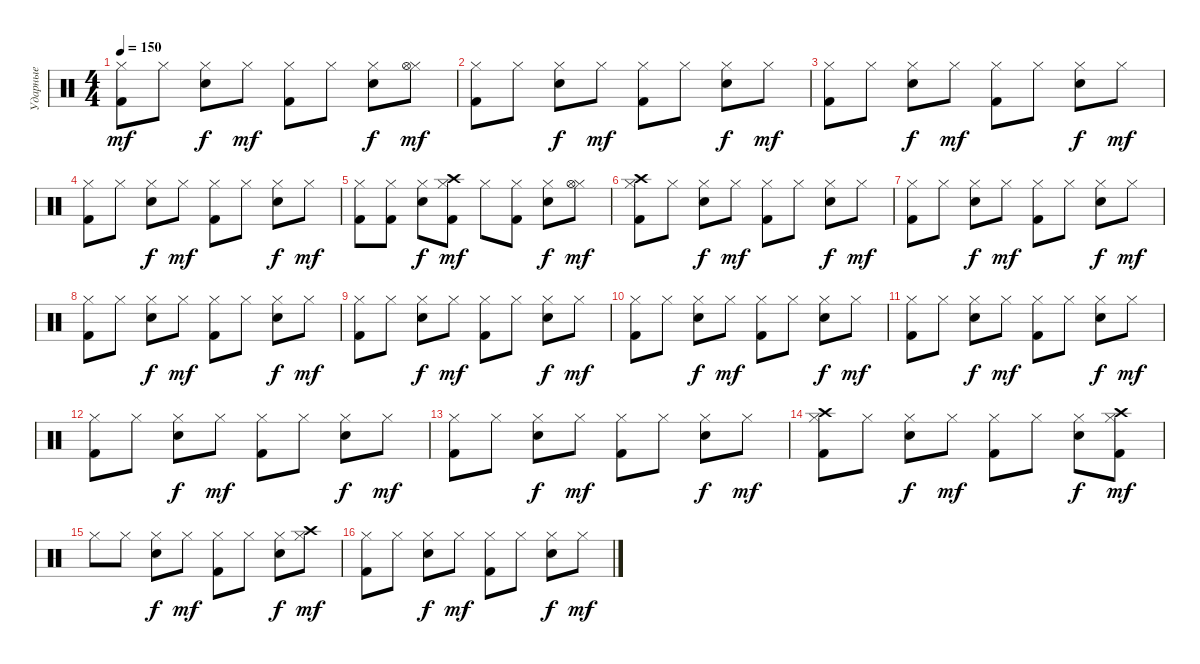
\track ("Ударные" "Ударные") {instrument percussion}
\staff {score}
\articulation defaults
\ts (4 4)
\tempo 150
\clef neutral
\ks c
("Kick (hit) 2" "Hi-Hat (closed)").8{dy mf} "Hi-Hat (closed)".8 ("Snare (hit) 2" "Hi-Hat (closed)").8{dy f} "Hi-Hat (closed)".8{dy mf} ("Kick (hit) 2" "Hi-Hat (closed)").8 "Hi-Hat (closed)".8 ("Snare (hit) 2" "Hi-Hat (closed)").8{dy f} ("Hi-Hat (closed)" "Hi-Hat (open)").8{dy mf} |
("Kick (hit) 2" "Hi-Hat (closed)").8 "Hi-Hat (closed)".8 ("Snare (hit) 2" "Hi-Hat (closed)").8{dy f} "Hi-Hat (closed)".8{dy mf} ("Kick (hit) 2" "Hi-Hat (closed)").8 "Hi-Hat (closed)".8 ("Snare (hit) 2" "Hi-Hat (closed)").8{dy f} "Hi-Hat (closed)".8{dy mf} |
("Kick (hit) 2" "Hi-Hat (closed)").8 "Hi-Hat (closed)".8 ("Snare (hit) 2" "Hi-Hat (closed)").8{dy f} "Hi-Hat (closed)".8{dy mf} ("Kick (hit) 2" "Hi-Hat (closed)").8 "Hi-Hat (closed)".8 ("Snare (hit) 2" "Hi-Hat (closed)").8{dy f} "Hi-Hat (closed)".8{dy mf} |
("Kick (hit) 2" "Hi-Hat (closed)").8 "Hi-Hat (closed)".8 ("Snare (hit) 2" "Hi-Hat (closed)").8{dy f} "Hi-Hat (closed)".8{dy mf} ("Kick (hit) 2" "Hi-Hat (closed)").8 "Hi-Hat (closed)".8 ("Snare (hit) 2" "Hi-Hat (closed)").8{dy f} "Hi-Hat (closed)".8{dy mf} |
("Kick (hit) 2" "Hi-Hat (closed)").8 ("Kick (hit) 2" "Hi-Hat (closed)").8 ("Snare (hit) 2" "Hi-Hat (closed)").8{dy f} ("Kick (hit) 2" "Crash high (hit)" "Hi-Hat (closed)").8{dy mf} "Hi-Hat (closed)".8 ("Kick (hit) 2" "Hi-Hat (closed)").8 ("Snare (hit) 2" "Hi-Hat (closed)").8{dy f} ("Hi-Hat (closed)" "Hi-Hat (open)").8{dy mf} |
("Kick (hit) 2" "Crash high (hit)" "Hi-Hat (closed)").8 "Hi-Hat (closed)".8 ("Snare (hit) 2" "Hi-Hat (closed)").8{dy f} "Hi-Hat (closed)".8{dy mf} ("Kick (hit) 2" "Hi-Hat (closed)").8 "Hi-Hat (closed)".8 ("Snare (hit) 2" "Hi-Hat (closed)").8{dy f} "Hi-Hat (closed)".8{dy mf} |
("Kick (hit) 2" "Hi-Hat (closed)").8 "Hi-Hat (closed)".8 ("Snare (hit) 2" "Hi-Hat (closed)").8{dy f} "Hi-Hat (closed)".8{dy mf} ("Kick (hit) 2" "Hi-Hat (closed)").8 "Hi-Hat (closed)".8 ("Snare (hit) 2" "Hi-Hat (closed)").8{dy f} "Hi-Hat (closed)".8{dy mf} |
("Kick (hit) 2" "Hi-Hat (closed)").8 "Hi-Hat (closed)".8 ("Snare (hit) 2" "Hi-Hat (closed)").8{dy f} "Hi-Hat (closed)".8{dy mf} ("Kick (hit) 2" "Hi-Hat (closed)").8 "Hi-Hat (closed)".8 ("Snare (hit) 2" "Hi-Hat (closed)").8{dy f} "Hi-Hat (closed)".8{dy mf} |
("Kick (hit) 2" "Hi-Hat (closed)").8 "Hi-Hat (closed)".8 ("Snare (hit) 2" "Hi-Hat (closed)").8{dy f} "Hi-Hat (closed)".8{dy mf} ("Kick (hit) 2" "Hi-Hat (closed)").8 "Hi-Hat (closed)".8 ("Snare (hit) 2" "Hi-Hat (closed)").8{dy f} "Hi-Hat (closed)".8{dy mf} |
("Kick (hit) 2" "Hi-Hat (closed)").8 "Hi-Hat (closed)".8 ("Snare (hit) 2" "Hi-Hat (closed)").8{dy f} "Hi-Hat (closed)".8{dy mf} ("Kick (hit) 2" "Hi-Hat (closed)").8 "Hi-Hat (closed)".8 ("Snare (hit) 2" "Hi-Hat (closed)").8{dy f} "Hi-Hat (closed)".8{dy mf} |
("Kick (hit) 2" "Hi-Hat (closed)").8 "Hi-Hat (closed)".8 ("Snare (hit) 2" "Hi-Hat (closed)").8{dy f} "Hi-Hat (closed)".8{dy mf} ("Kick (hit) 2" "Hi-Hat (closed)").8 "Hi-Hat (closed)".8 ("Snare (hit) 2" "Hi-Hat (closed)").8{dy f} "Hi-Hat (closed)".8{dy mf} |
("Kick (hit) 2" "Hi-Hat (closed)").8 "Hi-Hat (closed)".8 ("Snare (hit) 2" "Hi-Hat (closed)").8{dy f} "Hi-Hat (closed)".8{dy mf} ("Kick (hit) 2" "Hi-Hat (closed)").8 "Hi-Hat (closed)".8 ("Snare (hit) 2" "Hi-Hat (closed)").8{dy f} "Hi-Hat (closed)".8{dy mf} |
("Kick (hit) 2" "Hi-Hat (closed)").8 "Hi-Hat (closed)".8 ("Snare (hit) 2" "Hi-Hat (closed)").8{dy f} "Hi-Hat (closed)".8{dy mf} ("Kick (hit) 2" "Hi-Hat (closed)").8 "Hi-Hat (closed)".8 ("Snare (hit) 2" "Hi-Hat (closed)").8{dy f} "Hi-Hat (closed)".8{dy mf} |
("Kick (hit) 2" "Crash high (hit)" "Hi-Hat (closed)").8 "Hi-Hat (closed)".8 ("Snare (hit) 2" "Hi-Hat (closed)").8{dy f} "Hi-Hat (closed)".8{dy mf} ("Kick (hit) 2" "Hi-Hat (closed)").8 "Hi-Hat (closed)".8 ("Snare (hit) 2" "Hi-Hat (closed)").8{dy f} ("Kick (hit) 2" "Crash high (hit)" "Hi-Hat (closed)").8{dy mf} |
"Hi-Hat (closed)".8 "Hi-Hat (closed)".8 ("Snare (hit) 2" "Hi-Hat (closed)").8{dy f} "Hi-Hat (closed)".8{dy mf} ("Kick (hit) 2" "Hi-Hat (closed)").8 "Hi-Hat (closed)".8 ("Snare (hit) 2" "Hi-Hat (closed)").8{dy f} ("Crash high (hit)" "Hi-Hat (closed)").8{dy mf} |
("Kick (hit) 2" "Hi-Hat (closed)").8 "Hi-Hat (closed)".8 ("Snare (hit) 2" "Hi-Hat (closed)").8{dy f} "Hi-Hat (closed)".8{dy mf} ("Kick (hit) 2" "Hi-Hat (closed)").8 "Hi-Hat (closed)".8 ("Snare (hit) 2" "Hi-Hat (closed)").8{dy f} "Hi-Hat (closed)".8{dy mf}
